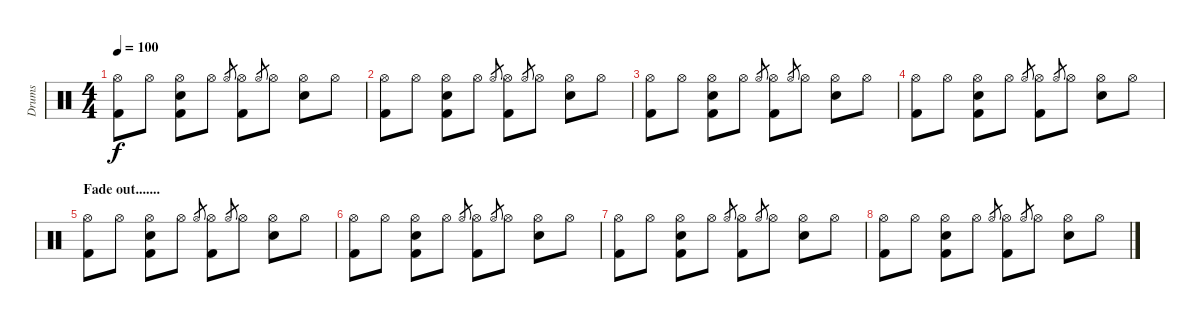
\track ("Drums" "Drums") {instrument percussion}
\staff {score}
\articulation defaults
\ts (4 4)
\tempo 100
\clef neutral
\ks c
("Hi-Hat (open)" "Kick (hit) 2").8{dy f} "Hi-Hat (open)".8 ("Electric Snare (hit)" "Hi-Hat (open)" "Kick (hit) 2").8 "Hi-Hat (open)".8 "Hi-Hat (open)".8{gr} ("Hi-Hat (open)" "Kick (hit) 2").8 "Hi-Hat (open)".8{gr} "Hi-Hat (open)".8 ("Electric Snare (hit)" "Hi-Hat (open)").8 "Hi-Hat (open)".8 |
("Hi-Hat (open)" "Kick (hit) 2").8 "Hi-Hat (open)".8 ("Electric Snare (hit)" "Hi-Hat (open)" "Kick (hit) 2").8 "Hi-Hat (open)".8 "Hi-Hat (open)".8{gr} ("Hi-Hat (open)" "Kick (hit) 2").8 "Hi-Hat (open)".8{gr} "Hi-Hat (open)".8 ("Electric Snare (hit)" "Hi-Hat (open)").8 "Hi-Hat (open)".8 |
("Hi-Hat (open)" "Kick (hit) 2").8 "Hi-Hat (open)".8 ("Electric Snare (hit)" "Hi-Hat (open)" "Kick (hit) 2").8 "Hi-Hat (open)".8 "Hi-Hat (open)".8{gr} ("Hi-Hat (open)" "Kick (hit) 2").8 "Hi-Hat (open)".8{gr} "Hi-Hat (open)".8 ("Electric Snare (hit)" "Hi-Hat (open)").8 "Hi-Hat (open)".8 |
("Hi-Hat (open)" "Kick (hit) 2").8 "Hi-Hat (open)".8 ("Electric Snare (hit)" "Hi-Hat (open)" "Kick (hit) 2").8 "Hi-Hat (open)".8 "Hi-Hat (open)".8{gr} ("Hi-Hat (open)" "Kick (hit) 2").8 "Hi-Hat (open)".8{gr} "Hi-Hat (open)".8 ("Electric Snare (hit)" "Hi-Hat (open)").8 "Hi-Hat (open)".8 |
\section ("" "Fade out.......")
("Hi-Hat (open)" "Kick (hit) 2").8{volume 0} "Hi-Hat (open)".8 ("Electric Snare (hit)" "Hi-Hat (open)" "Kick (hit) 2").8 "Hi-Hat (open)".8 "Hi-Hat (open)".8{gr} ("Hi-Hat (open)" "Kick (hit) 2").8 "Hi-Hat (open)".8{gr} "Hi-Hat (open)".8 ("Electric Snare (hit)" "Hi-Hat (open)").8 "Hi-Hat (open)".8 |
("Hi-Hat (open)" "Kick (hit) 2").8 "Hi-Hat (open)".8 ("Electric Snare (hit)" "Hi-Hat (open)" "Kick (hit) 2").8 "Hi-Hat (open)".8 "Hi-Hat (open)".8{gr} ("Hi-Hat (open)" "Kick (hit) 2").8 "Hi-Hat (open)".8{gr} "Hi-Hat (open)".8 ("Electric Snare (hit)" "Hi-Hat (open)").8 "Hi-Hat (open)".8 |
("Hi-Hat (open)" "Kick (hit) 2").8 "Hi-Hat (open)".8 ("Electric Snare (hit)" "Hi-Hat (open)" "Kick (hit) 2").8 "Hi-Hat (open)".8 "Hi-Hat (open)".8{gr} ("Hi-Hat (open)" "Kick (hit) 2").8 "Hi-Hat (open)".8{gr} "Hi-Hat (open)".8 ("Electric Snare (hit)" "Hi-Hat (open)").8 "Hi-Hat (open)".8 |
("Hi-Hat (open)" "Kick (hit) 2").8 "Hi-Hat (open)".8 ("Electric Snare (hit)" "Hi-Hat (open)" "Kick (hit) 2").8 "Hi-Hat (open)".8 "Hi-Hat (open)".8{gr} ("Hi-Hat (open)" "Kick (hit) 2").8 "Hi-Hat (open)".8{gr} "Hi-Hat (open)".8 ("Electric Snare (hit)" "Hi-Hat (open)").8 "Hi-Hat (open)".8
